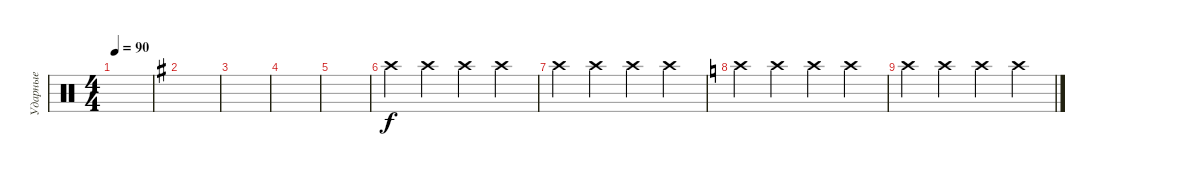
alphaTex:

\track ("Ударные" "Ударные") {instrument percussion}
\staff {score}
\articulation defaults
\ts (4 4)
\tempo 90
\clef neutral
\ks c
|
\ks g
|
|
|
|
"Crash high (hit)".4 "Crash high (hit)".4 "Crash high (hit)".4 "Crash high (hit)".4 |
"Crash high (hit)".4 "Crash high (hit)".4 "Crash high (hit)".4 "Crash high (hit)".4 |
\ks c "Crash high (hit)".4 "Crash high (hit)".4 "Crash high (hit)".4 "Crash high (hit)".4
|
"Crash high (hit)".4 "Crash high (hit)".4 "Crash high (hit)".4 "Crash high (hit)".4
